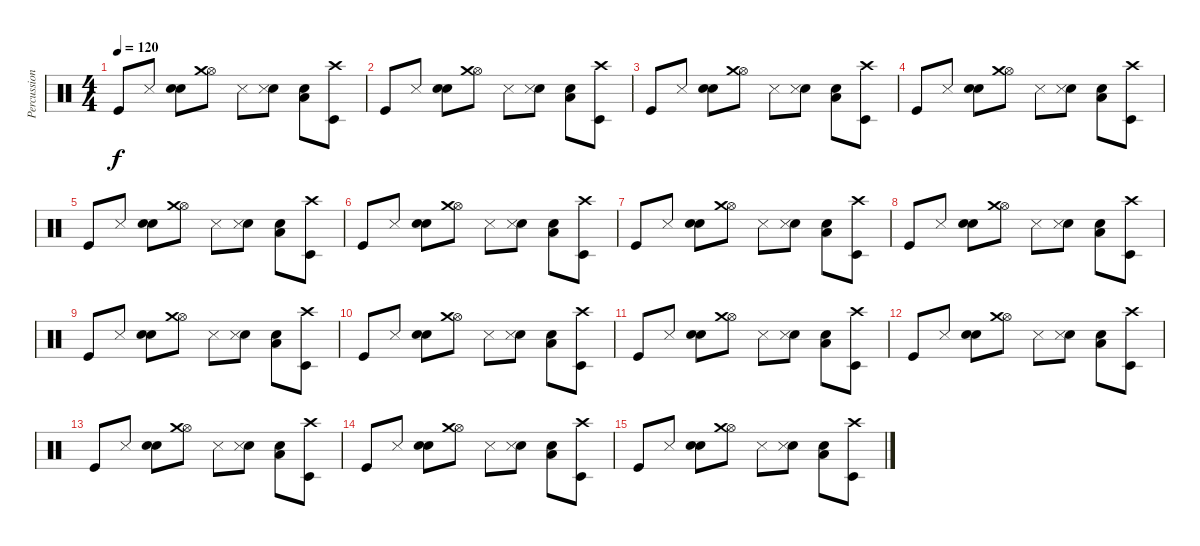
\track ("Percussion" "Percussion") {instrument percussion}
\staff {score}
\articulation defaults
\ts (4 4)
\tempo 120
\clef neutral
\ks c "Kick (hit)".8{dy f} "Snare (side stick) 3".8
("Hand Clap (hit)" "Electric Snare (hit)").8 ("Hi-Hat (open)" "Crash medium (hit)").8 "Metronome (hit)".8 ("Metronome (bell)" "Metronome (hit)").8 ("Low Floor Tom (hit)" "Electric Snare (hit)").8 ("Crash high (hit)" "Timbale low (hit)").8 |
"Kick (hit)".8 "Snare (side stick) 3".8 ("Hand Clap (hit)" "Electric Snare (hit)").8 ("Hi-Hat (open)" "Crash medium (hit)").8 "Metronome (hit)".8 ("Metronome (bell)" "Metronome (hit)").8 ("Low Floor Tom (hit)" "Electric Snare (hit)").8 ("Crash high (hit)" "Timbale low (hit)").8 |
"Kick (hit)".8 "Snare (side stick) 3".8 ("Hand Clap (hit)" "Electric Snare (hit)").8 ("Hi-Hat (open)" "Crash medium (hit)").8 "Metronome (hit)".8 ("Metronome (bell)" "Metronome (hit)").8 ("Low Floor Tom (hit)" "Electric Snare (hit)").8 ("Crash high (hit)" "Timbale low (hit)").8 |
"Kick (hit)".8 "Snare (side stick) 3".8 ("Hand Clap (hit)" "Electric Snare (hit)").8 ("Hi-Hat (open)" "Crash medium (hit)").8 "Metronome (hit)".8 ("Metronome (bell)" "Metronome (hit)").8 ("Low Floor Tom (hit)" "Electric Snare (hit)").8 ("Crash high (hit)" "Timbale low (hit)").8 |
"Kick (hit)".8 "Snare (side stick) 3".8 ("Hand Clap (hit)" "Electric Snare (hit)").8 ("Hi-Hat (open)" "Crash medium (hit)").8 "Metronome (hit)".8 ("Metronome (bell)" "Metronome (hit)").8 ("Low Floor Tom (hit)" "Electric Snare (hit)").8 ("Crash high (hit)" "Timbale low (hit)").8 |
"Kick (hit)".8 "Snare (side stick) 3".8 ("Hand Clap (hit)" "Electric Snare (hit)").8 ("Hi-Hat (open)" "Crash medium (hit)").8 "Metronome (hit)".8 ("Metronome (bell)" "Metronome (hit)").8 ("Low Floor Tom (hit)" "Electric Snare (hit)").8 ("Crash high (hit)" "Timbale low (hit)").8 |
"Kick (hit)".8 "Snare (side stick) 3".8 ("Hand Clap (hit)" "Electric Snare (hit)").8 ("Hi-Hat (open)" "Crash medium (hit)").8 "Metronome (hit)".8 ("Metronome (bell)" "Metronome (hit)").8 ("Low Floor Tom (hit)" "Electric Snare (hit)").8 ("Crash high (hit)" "Timbale low (hit)").8 |
"Kick (hit)".8 "Snare (side stick) 3".8 ("Hand Clap (hit)" "Electric Snare (hit)").8 ("Hi-Hat (open)" "Crash medium (hit)").8 "Metronome (hit)".8 ("Metronome (bell)" "Metronome (hit)").8 ("Low Floor Tom (hit)" "Electric Snare (hit)").8 ("Crash high (hit)" "Timbale low (hit)").8 |
"Kick (hit)".8 "Snare (side stick) 3".8 ("Hand Clap (hit)" "Electric Snare (hit)").8 ("Hi-Hat (open)" "Crash medium (hit)").8 "Metronome (hit)".8 ("Metronome (bell)" "Metronome (hit)").8 ("Low Floor Tom (hit)" "Electric Snare (hit)").8 ("Crash high (hit)" "Timbale low (hit)").8 |
"Kick (hit)".8 "Snare (side stick) 3".8 ("Hand Clap (hit)" "Electric Snare (hit)").8 ("Hi-Hat (open)" "Crash medium (hit)").8 "Metronome (hit)".8 ("Metronome (bell)" "Metronome (hit)").8 ("Low Floor Tom (hit)" "Electric Snare (hit)").8 ("Crash high (hit)" "Timbale low (hit)").8 |
"Kick (hit)".8 "Snare (side stick) 3".8 ("Hand Clap (hit)" "Electric Snare (hit)").8 ("Hi-Hat (open)" "Crash medium (hit)").8 "Metronome (hit)".8 ("Metronome (bell)" "Metronome (hit)").8 ("Low Floor Tom (hit)" "Electric Snare (hit)").8 ("Crash high (hit)" "Timbale low (hit)").8 |
"Kick (hit)".8 "Snare (side stick) 3".8 ("Hand Clap (hit)" "Electric Snare (hit)").8 ("Hi-Hat (open)" "Crash medium (hit)").8 "Metronome (hit)".8 ("Metronome (bell)" "Metronome (hit)").8 ("Low Floor Tom (hit)" "Electric Snare (hit)").8 ("Crash high (hit)" "Timbale low (hit)").8 |
"Kick (hit)".8 "Snare (side stick) 3".8 ("Hand Clap (hit)" "Electric Snare (hit)").8 ("Hi-Hat (open)" "Crash medium (hit)").8 "Metronome (hit)".8 ("Metronome (bell)" "Metronome (hit)").8 ("Low Floor Tom (hit)" "Electric Snare (hit)").8 ("Crash high (hit)" "Timbale low (hit)").8 |
"Kick (hit)".8 "Snare (side stick) 3".8 ("Hand Clap (hit)" "Electric Snare (hit)").8 ("Hi-Hat (open)" "Crash medium (hit)").8 "Metronome (hit)".8 ("Metronome (bell)" "Metronome (hit)").8 ("Low Floor Tom (hit)" "Electric Snare (hit)").8 ("Crash high (hit)" "Timbale low (hit)").8 |
"Kick (hit)".8 "Snare (side stick) 3".8 ("Hand Clap (hit)" "Electric Snare (hit)").8 ("Hi-Hat (open)" "Crash medium (hit)").8 "Metronome (hit)".8 ("Metronome (bell)" "Metronome (hit)").8 ("Low Floor Tom (hit)" "Electric Snare (hit)").8 ("Crash high (hit)" "Timbale low (hit)").8
